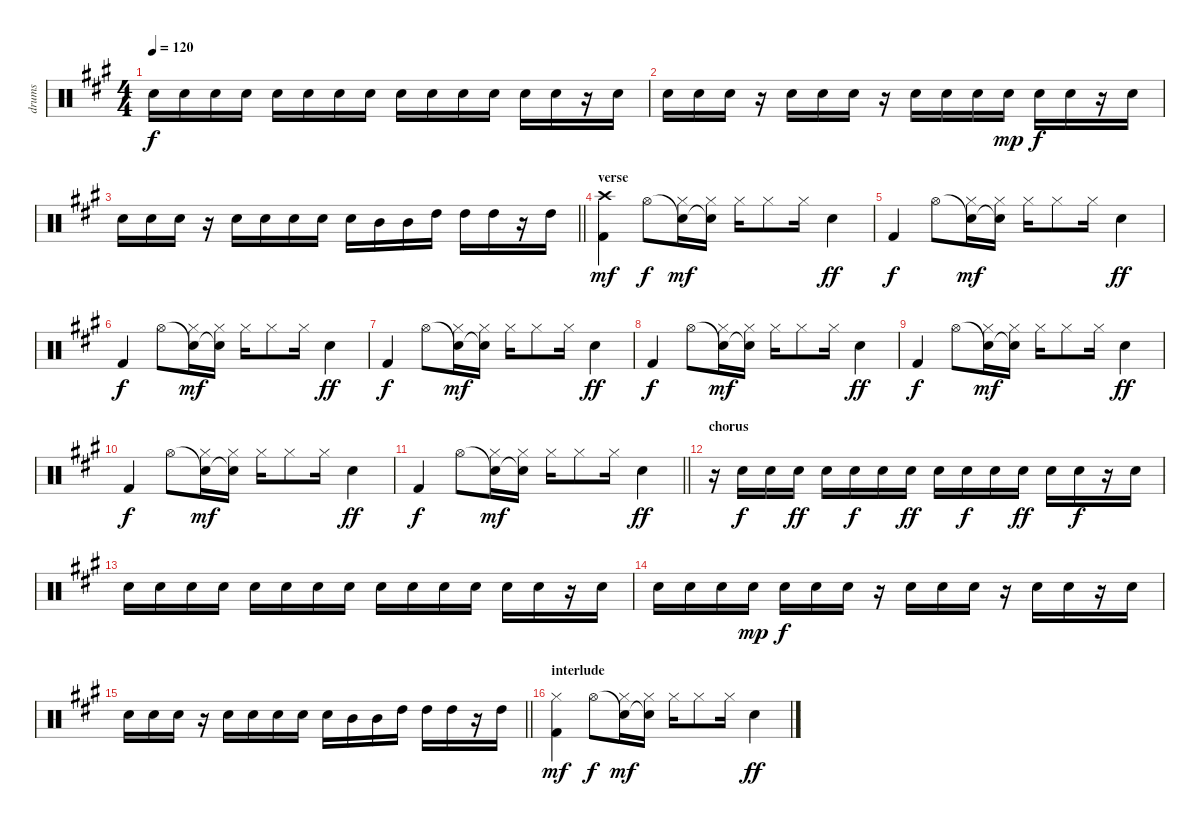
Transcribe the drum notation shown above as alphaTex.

\track ("drums" "drums") {instrument percussion}
\staff {score}
\articulation defaults
\ts (4 4)
\tempo 120
\clef neutral
\ks a "Electric Snare (hit)".16{dy f} "Electric Snare (hit)".16 "Electric Snare (hit)".16 "Electric Snare (hit)".16 "Electric Snare (hit)".16 "Electric Snare (hit)".16 "Electric Snare (hit)".16 "Electric Snare (hit)".16 "Electric Snare (hit)".16 "Electric Snare (hit)".16 "Electric Snare (hit)".16 "Electric Snare (hit)".16 "Electric Snare (hit)".16 "Electric Snare (hit)".16
r.16 "Electric Snare (hit)".16 |
"Electric Snare (hit)".16 "Electric Snare (hit)".16 "Electric Snare (hit)".16 r.16 "Electric Snare (hit)".16 "Electric Snare (hit)".16 "Electric Snare (hit)".16 r.16 "Electric Snare (hit)".16 "Electric Snare (hit)".16 "Electric Snare (hit)".16 "Electric Snare (hit)".16{dy mp} "Electric Snare (hit)".16{dy f} "Electric Snare (hit)".16 r.16 "Electric Snare (hit)".16 |
\barLineRight lightlight "Electric Snare (hit)".16 "Electric Snare (hit)".16 "Electric Snare (hit)".16
r.16 "Electric Snare (hit)".16 "Electric Snare (hit)".16 "Electric Snare (hit)".16 "Electric Snare (hit)".16 "Electric Snare (hit)".16 "Mid Tom (hit)".16 "Mid Tom (hit)".16 "High Tom (hit)".16 "High Tom (hit)".16 "High Tom (hit)".16 r.16 "High Tom (hit)".16 |
\section ("" "verse")
("Crash high (hit)" "Kick (hit) 2").4{dy mf} "Hi-Hat (open)".8{dy f} ("Snare (hit)"{t} "Hi-Hat (closed)").16{dy mf} ("Snare (hit)"{t} "Hi-Hat (closed)").16 "Hi-Hat (closed)".16 "Hi-Hat (closed)".8 "Hi-Hat (closed)".16 "Electric Snare (hit)".4{dy ff} |
"Kick (hit) 2".4{dy f} "Hi-Hat (open)".8 ("Snare (hit)"{t} "Hi-Hat (closed)").16{dy mf} ("Snare (hit)"{t} "Hi-Hat (closed)").16 "Hi-Hat (closed)".16 "Hi-Hat (closed)".8 "Hi-Hat (closed)".16 "Electric Snare (hit)".4{dy ff} |
"Kick (hit) 2".4{dy f} "Hi-Hat (open)".8 ("Snare (hit)"{t} "Hi-Hat (closed)").16{dy mf} ("Snare (hit)"{t} "Hi-Hat (closed)").16 "Hi-Hat (closed)".16 "Hi-Hat (closed)".8 "Hi-Hat (closed)".16 "Electric Snare (hit)".4{dy ff} |
"Kick (hit) 2".4{dy f} "Hi-Hat (open)".8 ("Snare (hit)"{t} "Hi-Hat (closed)").16{dy mf} ("Snare (hit)"{t} "Hi-Hat (closed)").16 "Hi-Hat (closed)".16 "Hi-Hat (closed)".8 "Hi-Hat (closed)".16 "Electric Snare (hit)".4{dy ff} |
"Kick (hit) 2".4{dy f} "Hi-Hat (open)".8 ("Snare (hit)"{t} "Hi-Hat (closed)").16{dy mf} ("Snare (hit)"{t} "Hi-Hat (closed)").16 "Hi-Hat (closed)".16 "Hi-Hat (closed)".8 "Hi-Hat (closed)".16 "Electric Snare (hit)".4{dy ff} |
"Kick (hit) 2".4{dy f} "Hi-Hat (open)".8 ("Snare (hit)"{t} "Hi-Hat (closed)").16{dy mf} ("Snare (hit)"{t} "Hi-Hat (closed)").16 "Hi-Hat (closed)".16 "Hi-Hat (closed)".8 "Hi-Hat (closed)".16 "Electric Snare (hit)".4{dy ff} |
"Kick (hit) 2".4{dy f} "Hi-Hat (open)".8 ("Snare (hit)"{t} "Hi-Hat (closed)").16{dy mf} ("Snare (hit)"{t} "Hi-Hat (closed)").16 "Hi-Hat (closed)".16 "Hi-Hat (closed)".8 "Hi-Hat (closed)".16 "Electric Snare (hit)".4{dy ff} |
\barLineRight lightlight "Kick (hit) 2".4{dy f} "Hi-Hat (open)".8
("Snare (hit)"{t} "Hi-Hat (closed)").16{dy mf} ("Snare (hit)"{t} "Hi-Hat (closed)").16 "Hi-Hat (closed)".16 "Hi-Hat (closed)".8 "Hi-Hat (closed)".16 "Electric Snare (hit)".4{dy ff} |
\section ("" "chorus")
r.16 "Electric Snare (hit)".16{dy f} "Electric Snare (hit)".16 "Electric Snare (hit)".16{dy ff} "Electric Snare (hit)".16 "Electric Snare (hit)".16{dy f} "Electric Snare (hit)".16 "Electric Snare (hit)".16{dy ff} "Electric Snare (hit)".16 "Electric Snare (hit)".16{dy f} "Electric Snare (hit)".16 "Electric Snare (hit)".16{dy ff} "Electric Snare (hit)".16 "Electric Snare (hit)".16{dy f} r.16 "Electric Snare (hit)".16 |
"Electric Snare (hit)".16 "Electric Snare (hit)".16 "Electric Snare (hit)".16 "Electric Snare (hit)".16 "Electric Snare (hit)".16 "Electric Snare (hit)".16 "Electric Snare (hit)".16 "Electric Snare (hit)".16 "Electric Snare (hit)".16 "Electric Snare (hit)".16 "Electric Snare (hit)".16 "Electric Snare (hit)".16 "Electric Snare (hit)".16 "Electric Snare (hit)".16 r.16 "Electric Snare (hit)".16 |
"Electric Snare (hit)".16 "Electric Snare (hit)".16 "Electric Snare (hit)".16 "Electric Snare (hit)".16{dy mp} "Electric Snare (hit)".16{dy f} "Electric Snare (hit)".16 "Electric Snare (hit)".16 r.16 "Electric Snare (hit)".16 "Electric Snare (hit)".16 "Electric Snare (hit)".16 r.16 "Electric Snare (hit)".16 "Electric Snare (hit)".16 r.16 "Electric Snare (hit)".16 |
\barLineRight lightlight "Electric Snare (hit)".16 "Electric Snare (hit)".16 "Electric Snare (hit)".16
r.16 "Electric Snare (hit)".16 "Electric Snare (hit)".16 "Electric Snare (hit)".16 "Electric Snare (hit)".16 "Electric Snare (hit)".16 "Mid Tom (hit)".16 "Mid Tom (hit)".16 "High Tom (hit)".16 "High Tom (hit)".16 "High Tom (hit)".16 r.16 "High Tom (hit)".16 |
\section ("" "interlude")
("Hi-Hat (closed)" "Kick (hit) 2").4{dy mf} "Hi-Hat (open)".8{dy f} ("Snare (hit)"{t} "Hi-Hat (closed)").16{dy mf} ("Snare (hit)"{t} "Hi-Hat (closed)").16 "Hi-Hat (closed)".16 "Hi-Hat (closed)".8 "Hi-Hat (closed)".16 "Electric Snare (hit)".4{dy ff}
